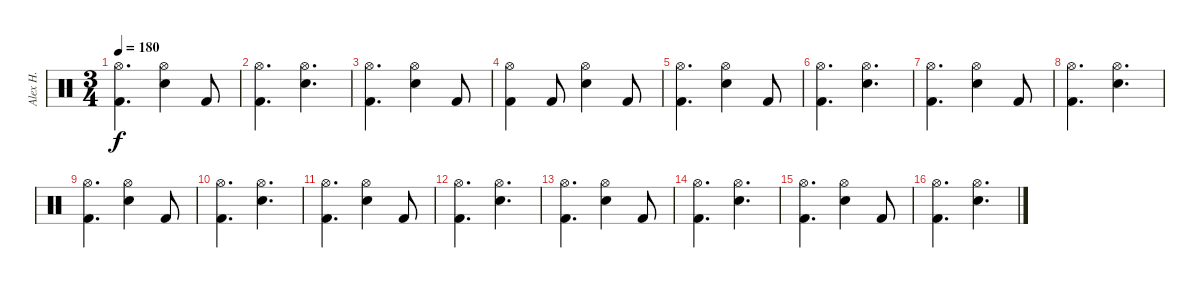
\track ("Alex H." "Alex H.") {instrument percussion}
\staff {score}
\articulation defaults
\ts (3 4)
\tempo 180
\clef neutral
\ks c
("Kick (hit) 2" "Hi-Hat (open)").4{d dy f} ("Electric Snare (hit)" "Hi-Hat (open)").4 "Kick (hit) 2".8 |
("Kick (hit) 2" "Hi-Hat (open)").4{d} ("Electric Snare (hit)" "Hi-Hat (open)").4{d} |
("Kick (hit) 2" "Hi-Hat (open)").4{d} ("Electric Snare (hit)" "Hi-Hat (open)").4 "Kick (hit) 2".8 |
("Kick (hit) 2" "Hi-Hat (open)").4 "Kick (hit) 2".8 ("Electric Snare (hit)" "Hi-Hat (open)").4 "Kick (hit) 2".8 |
("Kick (hit) 2" "Hi-Hat (open)").4{d} ("Electric Snare (hit)" "Hi-Hat (open)").4 "Kick (hit) 2".8 |
("Kick (hit) 2" "Hi-Hat (open)").4{d} ("Electric Snare (hit)" "Hi-Hat (open)").4{d} |
("Kick (hit) 2" "Hi-Hat (open)").4{d} ("Electric Snare (hit)" "Hi-Hat (open)").4 "Kick (hit) 2".8 |
("Kick (hit) 2" "Hi-Hat (open)").4{d} ("Electric Snare (hit)" "Hi-Hat (open)").4{d} |
("Kick (hit) 2" "Hi-Hat (open)").4{d} ("Electric Snare (hit)" "Hi-Hat (open)").4 "Kick (hit) 2".8 |
("Kick (hit) 2" "Hi-Hat (open)").4{d} ("Electric Snare (hit)" "Hi-Hat (open)").4{d} |
("Kick (hit) 2" "Hi-Hat (open)").4{d} ("Electric Snare (hit)" "Hi-Hat (open)").4 "Kick (hit) 2".8 |
("Kick (hit) 2" "Hi-Hat (open)").4{d} ("Electric Snare (hit)" "Hi-Hat (open)").4{d} |
("Kick (hit) 2" "Hi-Hat (open)").4{d} ("Electric Snare (hit)" "Hi-Hat (open)").4 "Kick (hit) 2".8 |
("Kick (hit) 2" "Hi-Hat (open)").4{d} ("Electric Snare (hit)" "Hi-Hat (open)").4{d} |
("Kick (hit) 2" "Hi-Hat (open)").4{d} ("Electric Snare (hit)" "Hi-Hat (open)").4 "Kick (hit) 2".8 |
("Kick (hit) 2" "Hi-Hat (open)").4{d} ("Electric Snare (hit)" "Hi-Hat (open)").4{d}
